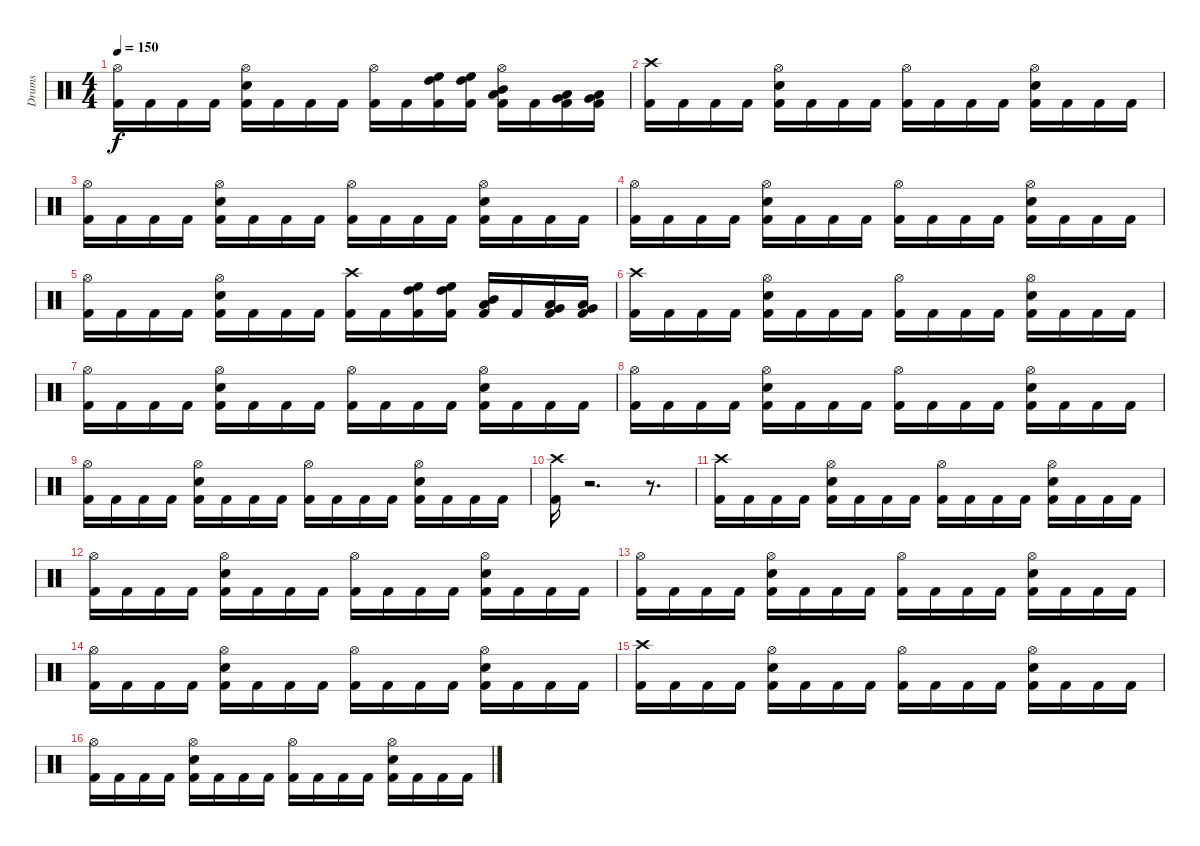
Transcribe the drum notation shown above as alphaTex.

\track ("Drums" "Drums") {instrument percussion}
\staff {score}
\articulation defaults
\ts (4 4)
\tempo 150
\clef neutral
\ks c
("Hi-Hat (open)" "Kick (hit) 2").16{dy f} "Kick (hit) 2".16 "Kick (hit) 2".16 "Kick (hit) 2".16 ("Hi-Hat (open)" "Electric Snare (hit)" "Kick (hit) 2").16 "Kick (hit) 2".16 "Kick (hit) 2".16 "Kick (hit) 2".16 ("Hi-Hat (open)" "Kick (hit) 2").16 "Kick (hit) 2".16 ("High Floor Tom (hit)" "High Tom (hit)" "Kick (hit) 2").16 ("High Floor Tom (hit)" "High Tom (hit)" "Kick (hit) 2").16 ("Hi-Hat (open)" "Mid Tom (hit)" "Low Tom (hit)" "Kick (hit) 2").16 "Kick (hit) 2".16 ("Very Low Tom (hit)" "Low Floor Tom (hit)" "Kick (hit) 2").16 ("Very Low Tom (hit)" "Low Floor Tom (hit)" "Kick (hit) 2").16 |
("Crash high (hit)" "Kick (hit) 2").16 "Kick (hit) 2".16 "Kick (hit) 2".16 "Kick (hit) 2".16 ("Hi-Hat (open)" "Electric Snare (hit)" "Kick (hit) 2").16 "Kick (hit) 2".16 "Kick (hit) 2".16 "Kick (hit) 2".16 ("Hi-Hat (open)" "Kick (hit) 2").16 "Kick (hit) 2".16 "Kick (hit) 2".16 "Kick (hit) 2".16 ("Hi-Hat (open)" "Electric Snare (hit)" "Kick (hit) 2").16 "Kick (hit) 2".16 "Kick (hit) 2".16 "Kick (hit) 2".16 |
("Hi-Hat (open)" "Kick (hit) 2").16 "Kick (hit) 2".16 "Kick (hit) 2".16 "Kick (hit) 2".16 ("Hi-Hat (open)" "Electric Snare (hit)" "Kick (hit) 2").16 "Kick (hit) 2".16 "Kick (hit) 2".16 "Kick (hit) 2".16 ("Hi-Hat (open)" "Kick (hit) 2").16 "Kick (hit) 2".16 "Kick (hit) 2".16 "Kick (hit) 2".16 ("Hi-Hat (open)" "Electric Snare (hit)" "Kick (hit) 2").16 "Kick (hit) 2".16 "Kick (hit) 2".16 "Kick (hit) 2".16 |
("Hi-Hat (open)" "Kick (hit) 2").16 "Kick (hit) 2".16 "Kick (hit) 2".16 "Kick (hit) 2".16 ("Hi-Hat (open)" "Electric Snare (hit)" "Kick (hit) 2").16 "Kick (hit) 2".16 "Kick (hit) 2".16 "Kick (hit) 2".16 ("Hi-Hat (open)" "Kick (hit) 2").16 "Kick (hit) 2".16 "Kick (hit) 2".16 "Kick (hit) 2".16 ("Hi-Hat (open)" "Electric Snare (hit)" "Kick (hit) 2").16 "Kick (hit) 2".16 "Kick (hit) 2".16 "Kick (hit) 2".16 |
("Hi-Hat (open)" "Kick (hit) 2").16 "Kick (hit) 2".16 "Kick (hit) 2".16 "Kick (hit) 2".16 ("Hi-Hat (open)" "Electric Snare (hit)" "Kick (hit) 2").16 "Kick (hit) 2".16 "Kick (hit) 2".16 "Kick (hit) 2".16 ("Crash high (hit)" "Kick (hit) 2").16 "Kick (hit) 2".16 ("High Floor Tom (hit)" "High Tom (hit)" "Kick (hit) 2").16 ("High Floor Tom (hit)" "High Tom (hit)" "Kick (hit) 2").16 ("Mid Tom (hit)" "Low Tom (hit)" "Kick (hit) 2").16 "Kick (hit) 2".16 ("Very Low Tom (hit)" "Low Floor Tom (hit)" "Kick (hit) 2").16 ("Very Low Tom (hit)" "Low Floor Tom (hit)" "Kick (hit) 2").16 |
("Crash high (hit)" "Kick (hit) 2").16 "Kick (hit) 2".16 "Kick (hit) 2".16 "Kick (hit) 2".16 ("Hi-Hat (open)" "Electric Snare (hit)" "Kick (hit) 2").16 "Kick (hit) 2".16 "Kick (hit) 2".16 "Kick (hit) 2".16 ("Hi-Hat (open)" "Kick (hit) 2").16 "Kick (hit) 2".16 "Kick (hit) 2".16 "Kick (hit) 2".16 ("Hi-Hat (open)" "Electric Snare (hit)" "Kick (hit) 2").16 "Kick (hit) 2".16 "Kick (hit) 2".16 "Kick (hit) 2".16 |
("Hi-Hat (open)" "Kick (hit) 2").16 "Kick (hit) 2".16 "Kick (hit) 2".16 "Kick (hit) 2".16 ("Hi-Hat (open)" "Electric Snare (hit)" "Kick (hit) 2").16 "Kick (hit) 2".16 "Kick (hit) 2".16 "Kick (hit) 2".16 ("Hi-Hat (open)" "Kick (hit) 2").16 "Kick (hit) 2".16 "Kick (hit) 2".16 "Kick (hit) 2".16 ("Hi-Hat (open)" "Electric Snare (hit)" "Kick (hit) 2").16 "Kick (hit) 2".16 "Kick (hit) 2".16 "Kick (hit) 2".16 |
("Hi-Hat (open)" "Kick (hit) 2").16 "Kick (hit) 2".16 "Kick (hit) 2".16 "Kick (hit) 2".16 ("Hi-Hat (open)" "Electric Snare (hit)" "Kick (hit) 2").16 "Kick (hit) 2".16 "Kick (hit) 2".16 "Kick (hit) 2".16 ("Hi-Hat (open)" "Kick (hit) 2").16 "Kick (hit) 2".16 "Kick (hit) 2".16 "Kick (hit) 2".16 ("Hi-Hat (open)" "Electric Snare (hit)" "Kick (hit) 2").16 "Kick (hit) 2".16 "Kick (hit) 2".16 "Kick (hit) 2".16 |
("Hi-Hat (open)" "Kick (hit) 2").16 "Kick (hit) 2".16 "Kick (hit) 2".16 "Kick (hit) 2".16 ("Hi-Hat (open)" "Electric Snare (hit)" "Kick (hit) 2").16 "Kick (hit) 2".16 "Kick (hit) 2".16 "Kick (hit) 2".16 ("Hi-Hat (open)" "Kick (hit) 2").16 "Kick (hit) 2".16 "Kick (hit) 2".16 "Kick (hit) 2".16 ("Hi-Hat (open)" "Electric Snare (hit)" "Kick (hit) 2").16 "Kick (hit) 2".16 "Kick (hit) 2".16 "Kick (hit) 2".16 |
("Crash high (hit)" "Kick (hit) 2").16 r.2{d} r.8{d} |
("Crash high (hit)" "Kick (hit) 2").16 "Kick (hit) 2".16 "Kick (hit) 2".16 "Kick (hit) 2".16 ("Hi-Hat (open)" "Electric Snare (hit)" "Kick (hit) 2").16 "Kick (hit) 2".16 "Kick (hit) 2".16 "Kick (hit) 2".16 ("Hi-Hat (open)" "Kick (hit) 2").16 "Kick (hit) 2".16 "Kick (hit) 2".16 "Kick (hit) 2".16 ("Hi-Hat (open)" "Electric Snare (hit)" "Kick (hit) 2").16 "Kick (hit) 2".16 "Kick (hit) 2".16 "Kick (hit) 2".16 |
("Hi-Hat (open)" "Kick (hit) 2").16 "Kick (hit) 2".16 "Kick (hit) 2".16 "Kick (hit) 2".16 ("Hi-Hat (open)" "Electric Snare (hit)" "Kick (hit) 2").16 "Kick (hit) 2".16 "Kick (hit) 2".16 "Kick (hit) 2".16 ("Hi-Hat (open)" "Kick (hit) 2").16 "Kick (hit) 2".16 "Kick (hit) 2".16 "Kick (hit) 2".16 ("Hi-Hat (open)" "Electric Snare (hit)" "Kick (hit) 2").16 "Kick (hit) 2".16 "Kick (hit) 2".16 "Kick (hit) 2".16 |
("Hi-Hat (open)" "Kick (hit) 2").16 "Kick (hit) 2".16 "Kick (hit) 2".16 "Kick (hit) 2".16 ("Hi-Hat (open)" "Electric Snare (hit)" "Kick (hit) 2").16 "Kick (hit) 2".16 "Kick (hit) 2".16 "Kick (hit) 2".16 ("Hi-Hat (open)" "Kick (hit) 2").16 "Kick (hit) 2".16 "Kick (hit) 2".16 "Kick (hit) 2".16 ("Hi-Hat (open)" "Electric Snare (hit)" "Kick (hit) 2").16 "Kick (hit) 2".16 "Kick (hit) 2".16 "Kick (hit) 2".16 |
("Hi-Hat (open)" "Kick (hit) 2").16 "Kick (hit) 2".16 "Kick (hit) 2".16 "Kick (hit) 2".16 ("Hi-Hat (open)" "Electric Snare (hit)" "Kick (hit) 2").16 "Kick (hit) 2".16 "Kick (hit) 2".16 "Kick (hit) 2".16 ("Hi-Hat (open)" "Kick (hit) 2").16 "Kick (hit) 2".16 "Kick (hit) 2".16 "Kick (hit) 2".16 ("Hi-Hat (open)" "Electric Snare (hit)" "Kick (hit) 2").16 "Kick (hit) 2".16 "Kick (hit) 2".16 "Kick (hit) 2".16 |
("Crash high (hit)" "Kick (hit) 2").16 "Kick (hit) 2".16 "Kick (hit) 2".16 "Kick (hit) 2".16 ("Hi-Hat (open)" "Electric Snare (hit)" "Kick (hit) 2").16 "Kick (hit) 2".16 "Kick (hit) 2".16 "Kick (hit) 2".16 ("Hi-Hat (open)" "Kick (hit) 2").16 "Kick (hit) 2".16 "Kick (hit) 2".16 "Kick (hit) 2".16 ("Hi-Hat (open)" "Electric Snare (hit)" "Kick (hit) 2").16 "Kick (hit) 2".16 "Kick (hit) 2".16 "Kick (hit) 2".16 |
("Hi-Hat (open)" "Kick (hit) 2").16 "Kick (hit) 2".16 "Kick (hit) 2".16 "Kick (hit) 2".16 ("Hi-Hat (open)" "Electric Snare (hit)" "Kick (hit) 2").16 "Kick (hit) 2".16 "Kick (hit) 2".16 "Kick (hit) 2".16 ("Hi-Hat (open)" "Kick (hit) 2").16 "Kick (hit) 2".16 "Kick (hit) 2".16 "Kick (hit) 2".16 ("Hi-Hat (open)" "Electric Snare (hit)" "Kick (hit) 2").16 "Kick (hit) 2".16 "Kick (hit) 2".16 "Kick (hit) 2".16
